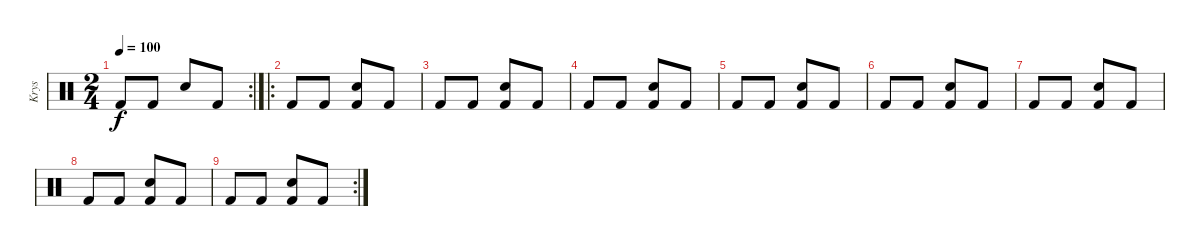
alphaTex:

\track ("Krys" "Krys") {instrument percussion}
\staff {score}
\articulation defaults
\rc 2
\ts (2 4)
\tempo 100
\clef neutral
\ks c "Kick (hit) 2".8{dy f} "Kick (hit) 2".8 "Snare (hit) 2".8 "Kick (hit) 2".8
|
\ro "Kick (hit) 2".8 "Kick (hit) 2".8
("Snare (hit) 2" "Kick (hit) 2").8 "Kick (hit) 2".8 |
"Kick (hit) 2".8 "Kick (hit) 2".8 ("Snare (hit) 2" "Kick (hit) 2").8 "Kick (hit) 2".8 |
"Kick (hit) 2".8 "Kick (hit) 2".8 ("Snare (hit) 2" "Kick (hit) 2").8 "Kick (hit) 2".8 |
"Kick (hit) 2".8 "Kick (hit) 2".8 ("Snare (hit) 2" "Kick (hit) 2").8 "Kick (hit) 2".8 |
"Kick (hit) 2".8 "Kick (hit) 2".8 ("Snare (hit) 2" "Kick (hit) 2").8 "Kick (hit) 2".8 |
"Kick (hit) 2".8 "Kick (hit) 2".8 ("Snare (hit) 2" "Kick (hit) 2").8 "Kick (hit) 2".8 |
"Kick (hit) 2".8 "Kick (hit) 2".8 ("Snare (hit) 2" "Kick (hit) 2").8 "Kick (hit) 2".8 |
\rc 2 "Kick (hit) 2".8 "Kick (hit) 2".8
("Snare (hit) 2" "Kick (hit) 2").8 "Kick (hit) 2".8
